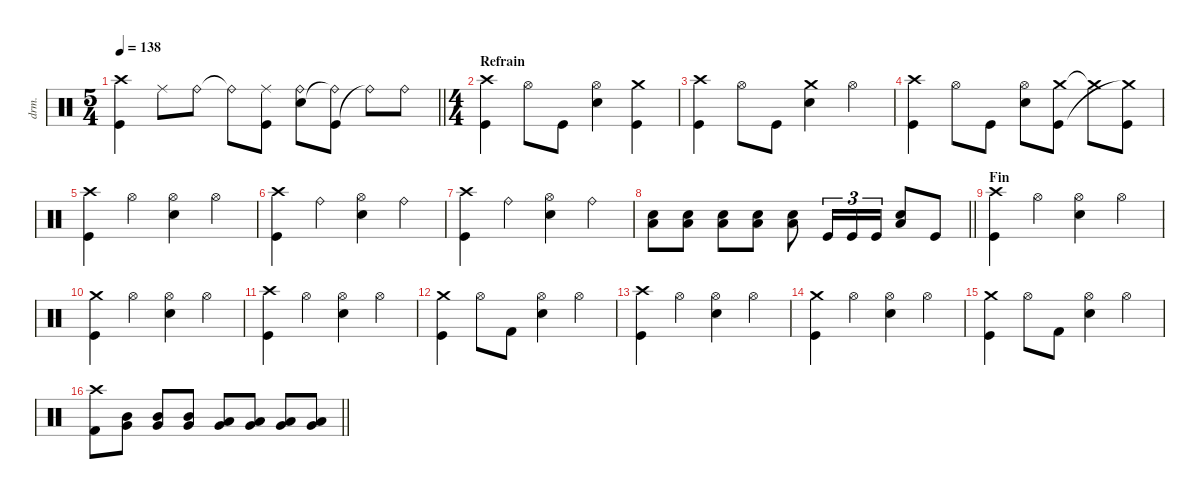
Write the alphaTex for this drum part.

\defaultSystemsLayout 4
\hideDynamics
\bracketExtendMode nobrackets
\track ("Percussions" "drm.") {instrument percussion}
\staff {score}
\articulation defaults
\ts (5 4)
\tempo 138
\clef neutral
\barLineRight lightlight
\ks aminor
("Crash high (hit)" "Kick (hit)").4{dy f beam Down} "Ride (middle)".8{beam Down} "Ride (bell)".8{beam Down} "Ride (bell)"{t}.8{beam Down} ("Ride (middle)" "Kick (hit)").8{beam Down} ("Ride (bell)" "Snare (hit) 2").8{beam Down} ("Kick (hit)" "Ride (bell)"{t}).8{beam Down} "Ride (bell)"{t}.8{beam Down} "Ride (bell)".8{beam Down} |
\ts (4 4)
\beaming (8 2 2 2 2)
\section ("" "Refrain")
("Kick (hit)" "Crash high (hit)").4{beam Down} "Hi-Hat (open)".8{beam Down} "Kick (hit)".8{beam Down} ("Hi-Hat (open)" "Snare (hit) 2").4{beam Down} ("Crash medium (hit)" "Kick (hit)").4{beam Down} |
("Kick (hit)" "Crash high (hit)").4{beam Down} "Hi-Hat (open)".8{beam Down} "Kick (hit)".8{beam Down} ("Crash medium (hit)" "Snare (hit) 2").4{beam Down} "Hi-Hat (open)".4{beam Down} |
("Kick (hit)" "Crash high (hit)").4{beam Down} "Hi-Hat (open)".8{beam Down} "Kick (hit)".8{beam Down} ("Hi-Hat (open)" "Snare (hit) 2").8{beam Down} ("Crash medium (hit)" "Kick (hit)").8{beam Down} "Crash medium (hit)"{t}.8{beam Down} ("Kick (hit)" "Crash medium (hit)"{t}).8{beam Down} |
("Kick (hit)" "Crash high (hit)").4{beam Down} "Hi-Hat (open)".4{beam Down} ("Hi-Hat (open)" "Snare (hit) 2").4{beam Down} "Hi-Hat (open)".4{beam Down} |
("Kick (hit)" "Crash high (hit)").4{beam Down} "Ride (bell)".4{beam Down} ("Hi-Hat (open)" "Snare (hit) 2").4{beam Down} "Ride (bell)".4{beam Down} |
("Kick (hit)" "Crash high (hit)").4{beam Down} "Ride (bell)".4{beam Down} ("Hi-Hat (open)" "Snare (hit) 2").4{beam Down} "Ride (bell)".4{beam Down} |
\barLineRight lightlight
("Snare (hit) 2" "Low Tom (hit)").8{beam Down} ("Snare (hit) 2" "Low Tom (hit)").8{beam Down} ("Snare (hit) 2" "Low Tom (hit)").8{beam Down} ("Snare (hit) 2" "Low Tom (hit)").8{beam Down} ("Snare (hit) 2" "Low Tom (hit)").8{beam Down} "Kick (hit)".16{tu (3 2) beam Up} "Kick (hit)".16{tu (3 2) beam Up} "Kick (hit)".16{tu (3 2) beam Up} ("Snare (hit) 2" "Low Tom (hit)").8{beam Up} "Kick (hit)".8{beam Up} |
\section ("" "Fin")
("Crash high (hit)" "Kick (hit)").4{beam Down} "Hi-Hat (open)".4{beam Down} ("Hi-Hat (open)" "Snare (hit) 2").4{beam Down} "Hi-Hat (open)".4{beam Down} |
("Crash medium (hit)" "Kick (hit)").4{beam Down} "Hi-Hat (open)".4{beam Down} ("Hi-Hat (open)" "Snare (hit) 2").4{beam Down} "Hi-Hat (open)".4{beam Down} |
("Crash high (hit)" "Kick (hit)").4{beam Down} "Hi-Hat (open)".4{beam Down} ("Hi-Hat (open)" "Snare (hit) 2").4{beam Down} "Hi-Hat (open)".4{beam Down} |
("Crash medium (hit)" "Kick (hit)").4{beam Down} "Hi-Hat (open)".8{beam Down} "Kick (hit) 2".8{beam Down} ("Hi-Hat (open)" "Snare (hit) 2").4{beam Down} "Hi-Hat (open)".4{beam Down} |
("Crash high (hit)" "Kick (hit)").4{beam Down} "Hi-Hat (open)".4{beam Down} ("Hi-Hat (open)" "Snare (hit) 2").4{beam Down} "Hi-Hat (open)".4{beam Down} |
("Crash medium (hit)" "Kick (hit)").4{beam Down} "Hi-Hat (open)".4{beam Down} ("Hi-Hat (open)" "Snare (hit) 2").4{beam Down} "Hi-Hat (open)".4{beam Down} |
("Crash medium (hit)" "Kick (hit)").4{beam Down} "Hi-Hat (open)".8{beam Down} "Kick (hit) 2".8{beam Down} ("Hi-Hat (open)" "Snare (hit) 2").4{beam Down} "Hi-Hat (open)".4{beam Down} |
\barLineRight lightlight
("Crash high (hit)" "Kick (hit) 2").8{beam Down} ("Mid Tom (hit)" "Very Low Tom (hit)").8{beam Down} ("Very Low Tom (hit)" "Mid Tom (hit)").8{beam Up} ("Very Low Tom (hit)" "Mid Tom (hit)").8{beam Up} ("Very Low Tom (hit)" "Low Tom (hit)").8{beam Up} ("Very Low Tom (hit)" "Low Tom (hit)").8{beam Up} ("Very Low Tom (hit)" "Low Tom (hit)").8{beam Up} ("Very Low Tom (hit)" "Low Tom (hit)").8{beam Up}
